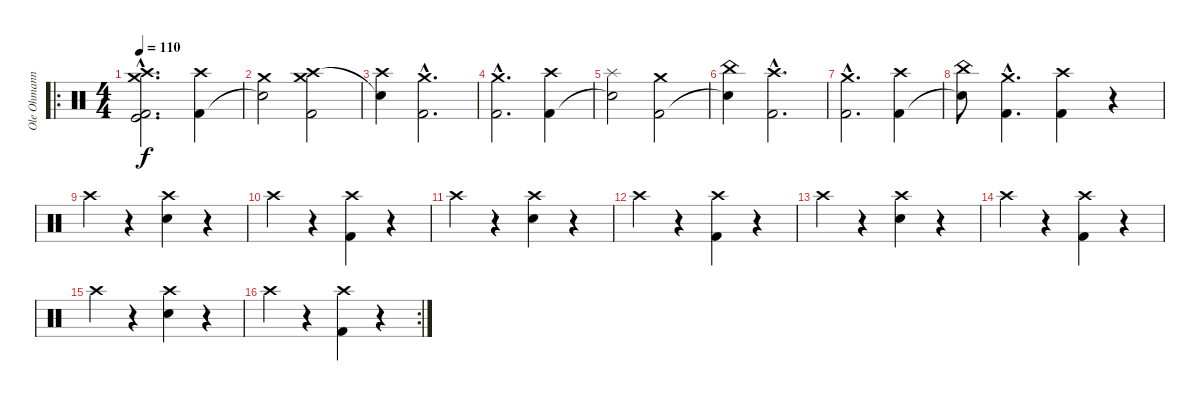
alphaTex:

\track ("Ole Ohmann" "Ole Ohmann") {instrument percussion}
\staff {score}
\articulation defaults
\ro
\ts (4 4)
\tempo 110
\clef neutral
\ks c
("Crash medium (hit)"{hac} "Crash high (hit)"{hac} "Kick (hit)"{hac} "Kick (hit) 2"{hac}).2{d dy f} ("Crash high (hit)" "Kick (hit) 2").4 |
("Crash medium (hit)" "Snare (hit)"{t}).2 ("Crash medium (hit)" "Crash high (hit)" "Kick (hit) 2").2 |
("Crash high (hit)" "Snare (hit)"{t}).4 ("Crash medium (hit)"{hac} "Kick (hit) 2"{hac}).2{d} |
("Crash medium (hit)"{hac} "Kick (hit) 2"{hac}).2{d} ("Crash high (hit)" "Kick (hit) 2").4 |
("Splash (hit)" "Snare (hit)"{t}).2 ("Crash medium (hit)" "Kick (hit) 2").2 |
("China (hit)" "Snare (hit)"{t}).4 ("Crash high (hit)"{hac} "Kick (hit) 2"{hac}).2{d} |
("Crash medium (hit)"{hac} "Kick (hit) 2"{hac}).2{d} ("Crash high (hit)" "Kick (hit) 2").4 |
("China (hit)" "Snare (hit)"{t}).8 ("Crash medium (hit)"{hac} "Kick (hit) 2"{hac}).4{d} ("Crash high (hit)" "Kick (hit) 2").4 r.4 |
"Crash high (hit)".4 r.4 ("Crash high (hit)" "Electric Snare (hit)").4 r.4 |
"Crash high (hit)".4 r.4 ("Crash high (hit)" "Kick (hit) 2").4 r.4 |
"Crash high (hit)".4 r.4 ("Crash high (hit)" "Electric Snare (hit)").4 r.4 |
"Crash high (hit)".4 r.4 ("Crash high (hit)" "Kick (hit) 2").4 r.4 |
"Crash high (hit)".4 r.4 ("Crash high (hit)" "Electric Snare (hit)").4 r.4 |
"Crash high (hit)".4 r.4 ("Crash high (hit)" "Kick (hit) 2").4 r.4 |
"Crash high (hit)".4 r.4 ("Crash high (hit)" "Electric Snare (hit)").4 r.4 |
\rc 2 "Crash high (hit)".4
r.4 ("Crash high (hit)" "Kick (hit) 2").4 r.4
